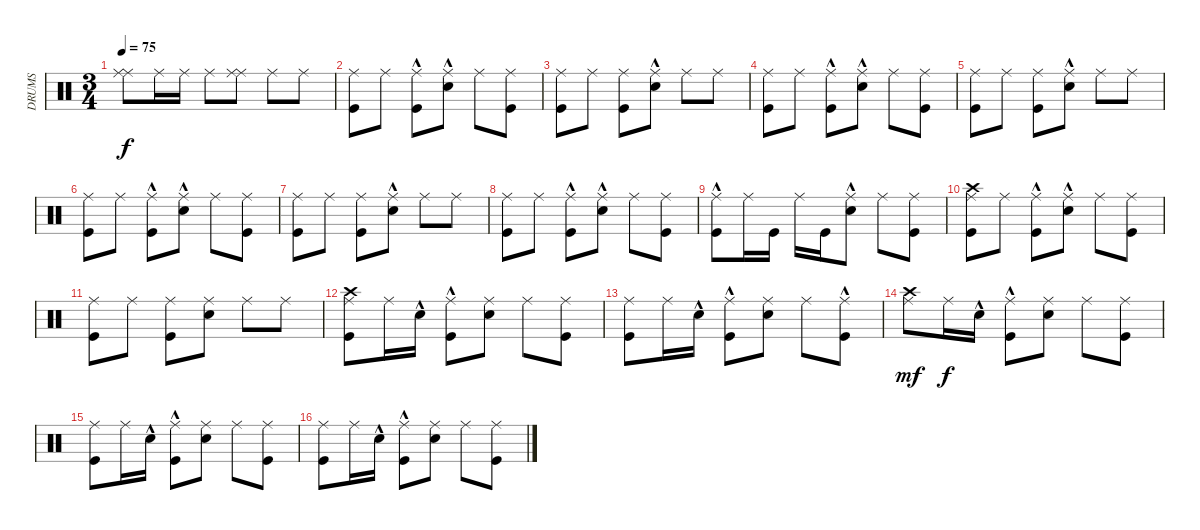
\track ("DRUMS" "DRUMS") {instrument percussion}
\staff {score}
\articulation defaults
\ts (3 4)
\tempo 75
\clef neutral
\ks c
("Ride (middle)" "Ride (middle)").8{dy f} "Ride (middle)".16 "Ride (middle)".16 "Ride (middle)".8 ("Ride (middle)" "Ride (middle)").8 "Ride (middle)".8 "Ride (middle)".8 |
("Kick (hit)" "Ride (middle)").8 "Ride (middle)".8 ("Kick (hit)"{hac} "Ride (middle)").8 ("Electric Snare (hit)"{hac} "Ride (middle)").8 "Ride (middle)".8 ("Kick (hit)" "Ride (middle)").8 |
("Kick (hit)" "Ride (middle)").8 "Ride (middle)".8 ("Kick (hit)" "Ride (middle)").8 ("Electric Snare (hit)"{hac} "Ride (middle)").8 "Ride (middle)".8 "Ride (middle)".8 |
("Kick (hit)" "Ride (middle)").8 "Ride (middle)".8 ("Kick (hit)"{hac} "Ride (middle)").8 ("Electric Snare (hit)"{hac} "Ride (middle)").8 "Ride (middle)".8 ("Kick (hit)" "Ride (middle)").8 |
("Kick (hit)" "Ride (middle)").8 "Ride (middle)".8 ("Kick (hit)" "Ride (middle)").8 ("Electric Snare (hit)"{hac} "Ride (middle)").8 "Ride (middle)".8 "Ride (middle)".8 |
("Kick (hit)" "Ride (middle)").8 "Ride (middle)".8 ("Kick (hit)"{hac} "Ride (middle)").8 ("Electric Snare (hit)"{hac} "Ride (middle)").8 "Ride (middle)".8 ("Kick (hit)" "Ride (middle)").8 |
("Kick (hit)" "Ride (middle)").8 "Ride (middle)".8 ("Kick (hit)" "Ride (middle)").8 ("Electric Snare (hit)"{hac} "Ride (middle)").8 "Ride (middle)".8 "Ride (middle)".8 |
("Kick (hit)" "Ride (middle)").8 "Ride (middle)".8 ("Kick (hit)"{hac} "Ride (middle)").8 ("Electric Snare (hit)"{hac} "Ride (middle)").8 "Ride (middle)".8 ("Kick (hit)" "Ride (middle)").8 |
("Kick (hit)"{hac} "Ride (middle)").8 "Ride (middle)".16 "Kick (hit)".16 "Ride (middle)".16 "Kick (hit)".16 ("Electric Snare (hit)"{hac} "Ride (middle)").8 "Ride (middle)".8 ("Kick (hit)" "Ride (middle)").8 |
("Kick (hit)" "Ride (middle)" "Crash high (hit)").8 "Ride (middle)".8 ("Kick (hit)"{hac} "Ride (middle)").8 ("Electric Snare (hit)"{hac} "Ride (middle)").8 "Ride (middle)".8 ("Kick (hit)" "Ride (middle)").8 |
("Kick (hit)" "Ride (middle)").8 "Ride (middle)".8 ("Kick (hit)" "Ride (middle)").8 ("Electric Snare (hit)" "Ride (middle)").8 "Ride (middle)".8 "Ride (middle)".8 |
("Kick (hit)" "Ride (middle)" "Crash high (hit)").8 "Ride (middle)".16 "Electric Snare (hit)"{hac}.16 ("Kick (hit)"{hac} "Ride (middle)").8 ("Electric Snare (hit)" "Ride (middle)").8 "Ride (middle)".8 ("Kick (hit)" "Ride (middle)").8 |
("Kick (hit)" "Ride (middle)").8 "Ride (middle)".16 "Electric Snare (hit)"{hac}.16 ("Kick (hit)"{hac} "Ride (middle)").8 ("Electric Snare (hit)" "Ride (middle)").8 "Ride (middle)".8 ("Kick (hit)"{hac} "Ride (middle)").8 |
("Ride (middle)" "Crash high (hit)").8{dy mf} "Ride (middle)".16{dy f} "Electric Snare (hit)"{hac}.16 ("Kick (hit)"{hac} "Ride (middle)").8 ("Electric Snare (hit)" "Ride (middle)").8 "Ride (middle)".8 ("Kick (hit)" "Ride (middle)").8 |
("Kick (hit)" "Ride (middle)").8 "Ride (middle)".16 "Electric Snare (hit)"{hac}.16 ("Kick (hit)"{hac} "Ride (middle)").8 ("Electric Snare (hit)" "Ride (middle)").8 "Ride (middle)".8 ("Kick (hit)" "Ride (middle)").8 |
("Kick (hit)" "Ride (middle)").8 "Ride (middle)".16 "Electric Snare (hit)"{hac}.16 ("Kick (hit)"{hac} "Ride (middle)").8 ("Electric Snare (hit)" "Ride (middle)").8 "Ride (middle)".8 ("Kick (hit)" "Ride (middle)").8
